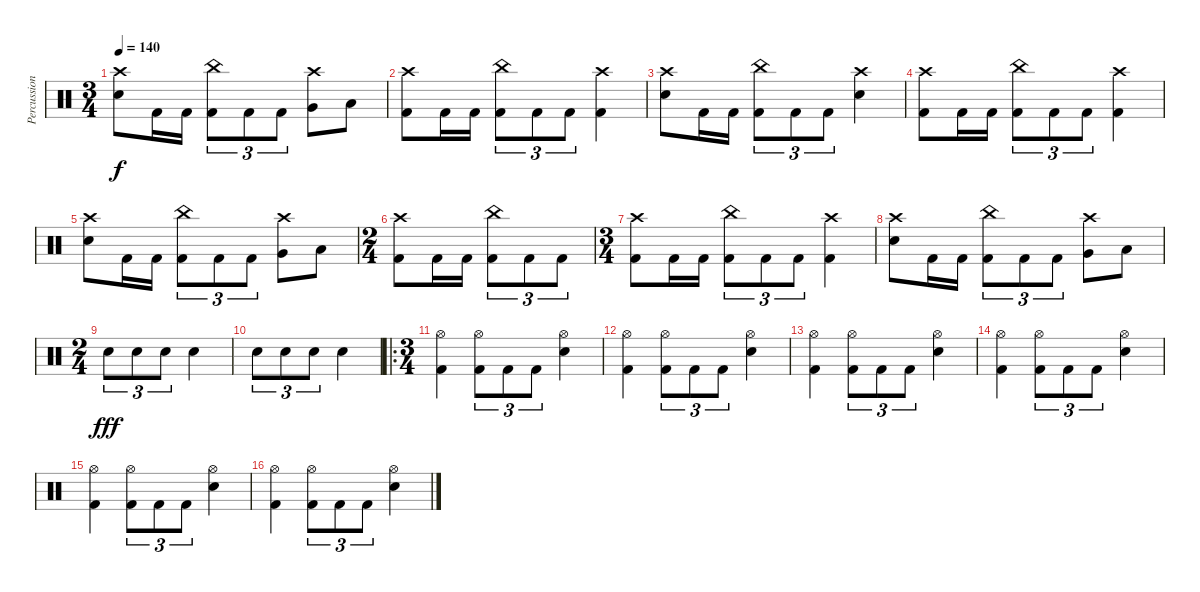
\track ("Percussions" "Percussion") {instrument percussion}
\staff {score}
\articulation defaults
\ts (3 4)
\tempo 140
\clef neutral
\ks c
("Crash high (hit)" "Electric Snare (hit)").8{dy f} "Kick (hit) 2".16 "Kick (hit) 2".16 ("China (hit)" "Kick (hit) 2").8{tu (3 2)} "Kick (hit) 2".8{tu (3 2)} "Kick (hit) 2".8{tu (3 2)} ("Crash high (hit)" "Very Low Tom (hit)").8 "Low Floor Tom (hit)".8 |
("Crash high (hit)" "Kick (hit) 2").8 "Kick (hit) 2".16 "Kick (hit) 2".16 ("China (hit)" "Kick (hit) 2").8{tu (3 2)} "Kick (hit) 2".8{tu (3 2)} "Kick (hit) 2".8{tu (3 2)} ("Crash high (hit)" "Kick (hit) 2").4 |
("Crash high (hit)" "Electric Snare (hit)").8 "Kick (hit) 2".16 "Kick (hit) 2".16 ("China (hit)" "Kick (hit) 2").8{tu (3 2)} "Kick (hit) 2".8{tu (3 2)} "Kick (hit) 2".8{tu (3 2)} ("Crash high (hit)" "Electric Snare (hit)").4 |
("Crash high (hit)" "Kick (hit) 2").8 "Kick (hit) 2".16 "Kick (hit) 2".16 ("China (hit)" "Kick (hit) 2").8{tu (3 2)} "Kick (hit) 2".8{tu (3 2)} "Kick (hit) 2".8{tu (3 2)} ("Crash high (hit)" "Kick (hit) 2").4 |
("Crash high (hit)" "Electric Snare (hit)").8 "Kick (hit) 2".16 "Kick (hit) 2".16 ("China (hit)" "Kick (hit) 2").8{tu (3 2)} "Kick (hit) 2".8{tu (3 2)} "Kick (hit) 2".8{tu (3 2)} ("Crash high (hit)" "Very Low Tom (hit)").8 "Low Floor Tom (hit)".8 |
\ts (2 4)
("Crash high (hit)" "Kick (hit) 2").8 "Kick (hit) 2".16 "Kick (hit) 2".16 ("China (hit)" "Kick (hit) 2").8{tu (3 2)} "Kick (hit) 2".8{tu (3 2)} "Kick (hit) 2".8{tu (3 2)} |
\ts (3 4)
("Crash high (hit)" "Kick (hit) 2").8 "Kick (hit) 2".16 "Kick (hit) 2".16 ("China (hit)" "Kick (hit) 2").8{tu (3 2)} "Kick (hit) 2".8{tu (3 2)} "Kick (hit) 2".8{tu (3 2)} ("Crash high (hit)" "Kick (hit) 2").4 |
("Crash high (hit)" "Electric Snare (hit)").8 "Kick (hit) 2".16 "Kick (hit) 2".16 ("China (hit)" "Kick (hit) 2").8{tu (3 2)} "Kick (hit) 2".8{tu (3 2)} "Kick (hit) 2".8{tu (3 2)} ("Crash high (hit)" "Very Low Tom (hit)").8 "Low Floor Tom (hit)".8 |
\ts (2 4)
"Electric Snare (hit)".8{tu (3 2) dy fff} "Electric Snare (hit)".8{tu (3 2)} "Electric Snare (hit)".8{tu (3 2)} "Electric Snare (hit)".4 |
"Electric Snare (hit)".8{tu (3 2)} "Electric Snare (hit)".8{tu (3 2)} "Electric Snare (hit)".8{tu (3 2)} "Electric Snare (hit)".4 |
\ro
\ts (3 4)
("Hi-Hat (open)" "Kick (hit) 2").4 ("Hi-Hat (open)" "Kick (hit) 2").8{tu (3 2)} "Kick (hit) 2".8{tu (3 2)} "Kick (hit) 2".8{tu (3 2)} ("Hi-Hat (open)" "Electric Snare (hit)").4 |
("Hi-Hat (open)" "Kick (hit) 2").4 ("Hi-Hat (open)" "Kick (hit) 2").8{tu (3 2)} "Kick (hit) 2".8{tu (3 2)} "Kick (hit) 2".8{tu (3 2)} ("Hi-Hat (open)" "Electric Snare (hit)").4 |
("Hi-Hat (open)" "Kick (hit) 2").4 ("Hi-Hat (open)" "Kick (hit) 2").8{tu (3 2)} "Kick (hit) 2".8{tu (3 2)} "Kick (hit) 2".8{tu (3 2)} ("Hi-Hat (open)" "Electric Snare (hit)").4 |
("Hi-Hat (open)" "Kick (hit) 2").4 ("Hi-Hat (open)" "Kick (hit) 2").8{tu (3 2)} "Kick (hit) 2".8{tu (3 2)} "Kick (hit) 2".8{tu (3 2)} ("Hi-Hat (open)" "Electric Snare (hit)").4 |
("Hi-Hat (open)" "Kick (hit) 2").4 ("Hi-Hat (open)" "Kick (hit) 2").8{tu (3 2)} "Kick (hit) 2".8{tu (3 2)} "Kick (hit) 2".8{tu (3 2)} ("Hi-Hat (open)" "Electric Snare (hit)").4 |
("Hi-Hat (open)" "Kick (hit) 2").4 ("Hi-Hat (open)" "Kick (hit) 2").8{tu (3 2)} "Kick (hit) 2".8{tu (3 2)} "Kick (hit) 2".8{tu (3 2)} ("Hi-Hat (open)" "Electric Snare (hit)").4
